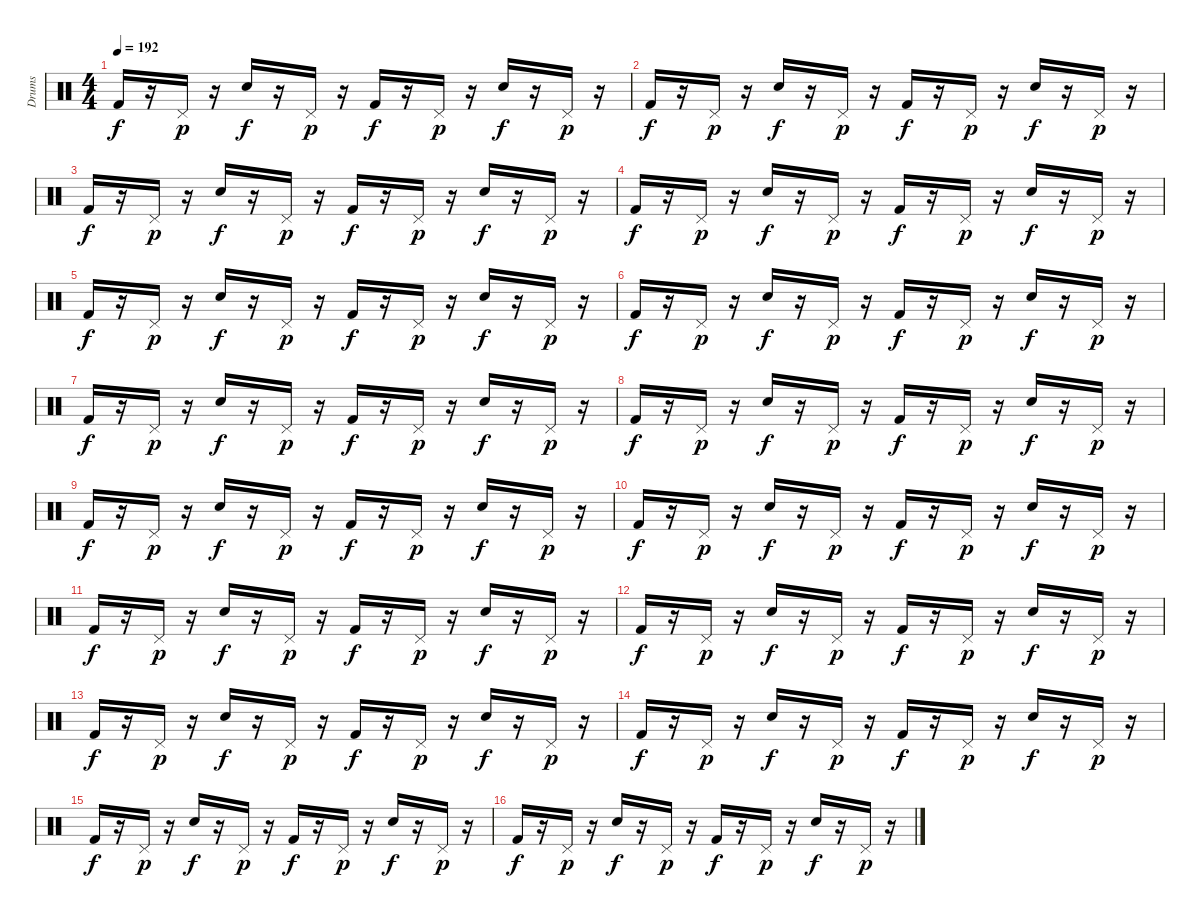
\track ("Drums" "Drums") {instrument percussion}
\staff {score}
\articulation defaults
\ts (4 4)
\tempo 192
\clef neutral
\ks c "Kick (hit) 2".16{dy f}
r.16 "Pedal Hi-Hat (hit)".16{dy p} r.16 "Electric Snare (hit)".16{dy f} r.16 "Pedal Hi-Hat (hit)".16{dy p} r.16 "Kick (hit) 2".16{dy f} r.16 "Pedal Hi-Hat (hit)".16{dy p} r.16 "Electric Snare (hit)".16{dy f} r.16 "Pedal Hi-Hat (hit)".16{dy p} r.16 |
"Kick (hit) 2".16{dy f} r.16 "Pedal Hi-Hat (hit)".16{dy p} r.16 "Electric Snare (hit)".16{dy f} r.16 "Pedal Hi-Hat (hit)".16{dy p} r.16 "Kick (hit) 2".16{dy f} r.16 "Pedal Hi-Hat (hit)".16{dy p} r.16 "Electric Snare (hit)".16{dy f} r.16 "Pedal Hi-Hat (hit)".16{dy p} r.16 |
"Kick (hit) 2".16{dy f} r.16 "Pedal Hi-Hat (hit)".16{dy p} r.16 "Electric Snare (hit)".16{dy f} r.16 "Pedal Hi-Hat (hit)".16{dy p} r.16 "Kick (hit) 2".16{dy f} r.16 "Pedal Hi-Hat (hit)".16{dy p} r.16 "Electric Snare (hit)".16{dy f} r.16 "Pedal Hi-Hat (hit)".16{dy p} r.16 |
"Kick (hit) 2".16{dy f} r.16 "Pedal Hi-Hat (hit)".16{dy p} r.16 "Electric Snare (hit)".16{dy f} r.16 "Pedal Hi-Hat (hit)".16{dy p} r.16 "Kick (hit) 2".16{dy f} r.16 "Pedal Hi-Hat (hit)".16{dy p} r.16 "Electric Snare (hit)".16{dy f} r.16 "Pedal Hi-Hat (hit)".16{dy p} r.16 |
"Kick (hit) 2".16{dy f} r.16 "Pedal Hi-Hat (hit)".16{dy p} r.16 "Electric Snare (hit)".16{dy f} r.16 "Pedal Hi-Hat (hit)".16{dy p} r.16 "Kick (hit) 2".16{dy f} r.16 "Pedal Hi-Hat (hit)".16{dy p} r.16 "Electric Snare (hit)".16{dy f} r.16 "Pedal Hi-Hat (hit)".16{dy p} r.16 |
"Kick (hit) 2".16{dy f} r.16 "Pedal Hi-Hat (hit)".16{dy p} r.16 "Electric Snare (hit)".16{dy f} r.16 "Pedal Hi-Hat (hit)".16{dy p} r.16 "Kick (hit) 2".16{dy f} r.16 "Pedal Hi-Hat (hit)".16{dy p} r.16 "Electric Snare (hit)".16{dy f} r.16 "Pedal Hi-Hat (hit)".16{dy p} r.16 |
"Kick (hit) 2".16{dy f} r.16 "Pedal Hi-Hat (hit)".16{dy p} r.16 "Electric Snare (hit)".16{dy f} r.16 "Pedal Hi-Hat (hit)".16{dy p} r.16 "Kick (hit) 2".16{dy f} r.16 "Pedal Hi-Hat (hit)".16{dy p} r.16 "Electric Snare (hit)".16{dy f} r.16 "Pedal Hi-Hat (hit)".16{dy p} r.16 |
"Kick (hit) 2".16{dy f} r.16 "Pedal Hi-Hat (hit)".16{dy p} r.16 "Electric Snare (hit)".16{dy f} r.16 "Pedal Hi-Hat (hit)".16{dy p} r.16 "Kick (hit) 2".16{dy f} r.16 "Pedal Hi-Hat (hit)".16{dy p} r.16 "Electric Snare (hit)".16{dy f} r.16 "Pedal Hi-Hat (hit)".16{dy p} r.16 |
"Kick (hit) 2".16{dy f} r.16 "Pedal Hi-Hat (hit)".16{dy p} r.16 "Electric Snare (hit)".16{dy f} r.16 "Pedal Hi-Hat (hit)".16{dy p} r.16 "Kick (hit) 2".16{dy f} r.16 "Pedal Hi-Hat (hit)".16{dy p} r.16 "Electric Snare (hit)".16{dy f} r.16 "Pedal Hi-Hat (hit)".16{dy p} r.16 |
"Kick (hit) 2".16{dy f} r.16 "Pedal Hi-Hat (hit)".16{dy p} r.16 "Electric Snare (hit)".16{dy f} r.16 "Pedal Hi-Hat (hit)".16{dy p} r.16 "Kick (hit) 2".16{dy f} r.16 "Pedal Hi-Hat (hit)".16{dy p} r.16 "Electric Snare (hit)".16{dy f} r.16 "Pedal Hi-Hat (hit)".16{dy p} r.16 |
"Kick (hit) 2".16{dy f} r.16 "Pedal Hi-Hat (hit)".16{dy p} r.16 "Electric Snare (hit)".16{dy f} r.16 "Pedal Hi-Hat (hit)".16{dy p} r.16 "Kick (hit) 2".16{dy f} r.16 "Pedal Hi-Hat (hit)".16{dy p} r.16 "Electric Snare (hit)".16{dy f} r.16 "Pedal Hi-Hat (hit)".16{dy p} r.16 |
"Kick (hit) 2".16{dy f} r.16 "Pedal Hi-Hat (hit)".16{dy p} r.16 "Electric Snare (hit)".16{dy f} r.16 "Pedal Hi-Hat (hit)".16{dy p} r.16 "Kick (hit) 2".16{dy f} r.16 "Pedal Hi-Hat (hit)".16{dy p} r.16 "Electric Snare (hit)".16{dy f} r.16 "Pedal Hi-Hat (hit)".16{dy p} r.16 |
"Kick (hit) 2".16{dy f} r.16 "Pedal Hi-Hat (hit)".16{dy p} r.16 "Electric Snare (hit)".16{dy f} r.16 "Pedal Hi-Hat (hit)".16{dy p} r.16 "Kick (hit) 2".16{dy f} r.16 "Pedal Hi-Hat (hit)".16{dy p} r.16 "Electric Snare (hit)".16{dy f} r.16 "Pedal Hi-Hat (hit)".16{dy p} r.16 |
"Kick (hit) 2".16{dy f} r.16 "Pedal Hi-Hat (hit)".16{dy p} r.16 "Electric Snare (hit)".16{dy f} r.16 "Pedal Hi-Hat (hit)".16{dy p} r.16 "Kick (hit) 2".16{dy f} r.16 "Pedal Hi-Hat (hit)".16{dy p} r.16 "Electric Snare (hit)".16{dy f} r.16 "Pedal Hi-Hat (hit)".16{dy p} r.16 |
"Kick (hit) 2".16{dy f} r.16 "Pedal Hi-Hat (hit)".16{dy p} r.16 "Electric Snare (hit)".16{dy f} r.16 "Pedal Hi-Hat (hit)".16{dy p} r.16 "Kick (hit) 2".16{dy f} r.16 "Pedal Hi-Hat (hit)".16{dy p} r.16 "Electric Snare (hit)".16{dy f} r.16 "Pedal Hi-Hat (hit)".16{dy p} r.16 |
"Kick (hit) 2".16{dy f} r.16 "Pedal Hi-Hat (hit)".16{dy p} r.16 "Electric Snare (hit)".16{dy f} r.16 "Pedal Hi-Hat (hit)".16{dy p} r.16 "Kick (hit) 2".16{dy f} r.16 "Pedal Hi-Hat (hit)".16{dy p} r.16 "Electric Snare (hit)".16{dy f} r.16 "Pedal Hi-Hat (hit)".16{dy p} r.16
